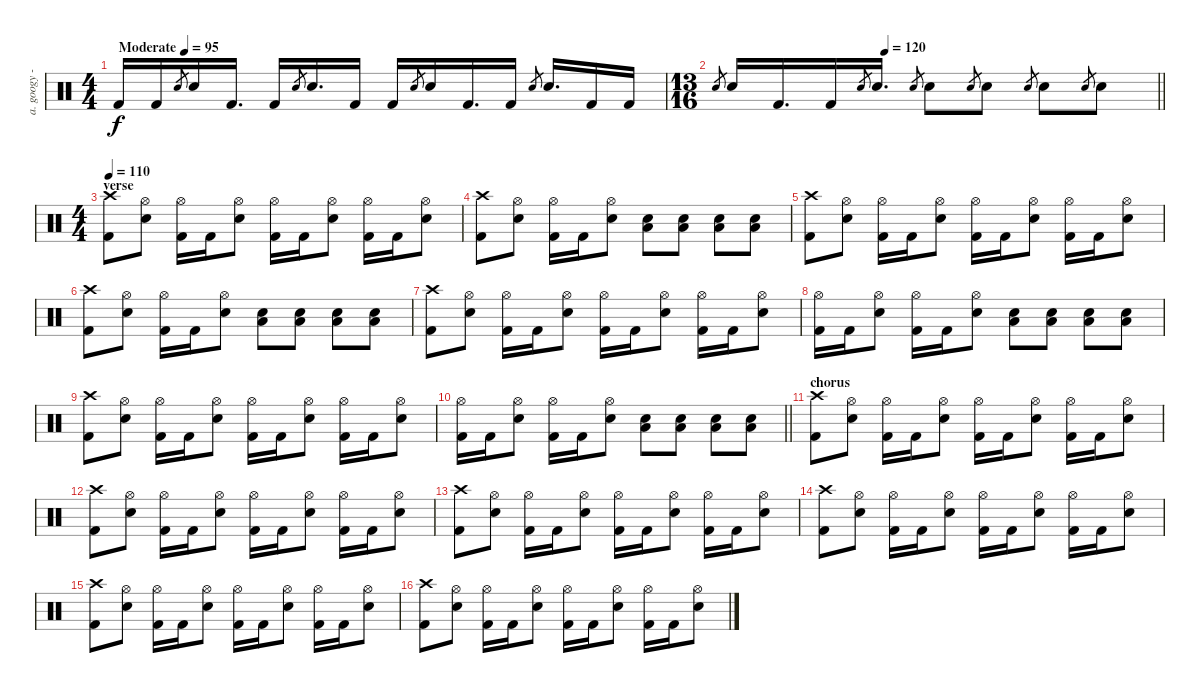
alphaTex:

\track ("a. googy - drums" "a. googy -") {instrument percussion}
\staff {score}
\articulation defaults
\ts (4 4)
\tempo (95 "Moderate")
\clef neutral
\ks c "Kick (hit) 2".16{dy f} "Kick (hit) 2".16 "Snare (hit) 2".8{gr} "Snare (hit) 2".16 "Kick (hit) 2".16{d} "Kick (hit) 2".16 "Snare (hit) 2".8{gr} "Snare (hit) 2".16{d} "Kick (hit) 2".16 "Kick (hit) 2".16 "Snare (hit) 2".8{gr} "Snare (hit) 2".16 "Kick (hit) 2".16{d} "Kick (hit) 2".16 "Snare (hit) 2".8{gr} "Snare (hit) 2".16{d} "Kick (hit) 2".16 "Kick (hit) 2".16
|
\ts (13 16)
\tempo (120 0.38461538461538464)
\barLineRight lightlight "Snare (hit) 2".8{gr} "Snare (hit) 2".16 "Kick (hit) 2".16{d} "Kick (hit) 2".16 "Snare (hit) 2".8{gr} "Snare (hit) 2".16{d} "Snare (hit) 2".8{gr} "Snare (hit) 2".8 "Snare (hit) 2".8{gr} "Snare (hit) 2".8 "Snare (hit) 2".8{gr} "Snare (hit) 2".8 "Snare (hit) 2".8{gr} "Snare (hit) 2".8
|
\ts (4 4)
\section ("" "verse")
\tempo 110
("Crash high (hit)" "Kick (hit) 2").8 ("Hi-Hat (open)" "Snare (hit) 2").8 ("Hi-Hat (open)" "Kick (hit) 2").16 "Kick (hit) 2".16 ("Hi-Hat (open)" "Snare (hit) 2").8 ("Hi-Hat (open)" "Kick (hit) 2").16 "Kick (hit) 2".16 ("Hi-Hat (open)" "Snare (hit) 2").8 ("Hi-Hat (open)" "Kick (hit) 2").16 "Kick (hit) 2".16 ("Hi-Hat (open)" "Snare (hit) 2").8 |
("Crash high (hit)" "Kick (hit) 2").8 ("Hi-Hat (open)" "Snare (hit) 2").8 ("Hi-Hat (open)" "Kick (hit) 2").16 "Kick (hit) 2".16 ("Hi-Hat (open)" "Snare (hit) 2").8 ("Snare (hit) 2" "Low Floor Tom (hit)").8 ("Snare (hit) 2" "Low Floor Tom (hit)").8 ("Snare (hit) 2" "Low Floor Tom (hit)").8 ("Snare (hit) 2" "Low Floor Tom (hit)").8 |
("Crash high (hit)" "Kick (hit) 2").8 ("Hi-Hat (open)" "Snare (hit) 2").8 ("Hi-Hat (open)" "Kick (hit) 2").16 "Kick (hit) 2".16 ("Hi-Hat (open)" "Snare (hit) 2").8 ("Hi-Hat (open)" "Kick (hit) 2").16 "Kick (hit) 2".16 ("Hi-Hat (open)" "Snare (hit) 2").8 ("Hi-Hat (open)" "Kick (hit) 2").16 "Kick (hit) 2".16 ("Hi-Hat (open)" "Snare (hit) 2").8 |
("Crash high (hit)" "Kick (hit) 2").8 ("Hi-Hat (open)" "Snare (hit) 2").8 ("Hi-Hat (open)" "Kick (hit) 2").16 "Kick (hit) 2".16 ("Hi-Hat (open)" "Snare (hit) 2").8 ("Snare (hit) 2" "Low Floor Tom (hit)").8 ("Snare (hit) 2" "Low Floor Tom (hit)").8 ("Snare (hit) 2" "Low Floor Tom (hit)").8 ("Snare (hit) 2" "Low Floor Tom (hit)").8 |
("Crash high (hit)" "Kick (hit) 2").8 ("Hi-Hat (open)" "Snare (hit) 2").8 ("Hi-Hat (open)" "Kick (hit) 2").16 "Kick (hit) 2".16 ("Hi-Hat (open)" "Snare (hit) 2").8 ("Hi-Hat (open)" "Kick (hit) 2").16 "Kick (hit) 2".16 ("Hi-Hat (open)" "Snare (hit) 2").8 ("Hi-Hat (open)" "Kick (hit) 2").16 "Kick (hit) 2".16 ("Hi-Hat (open)" "Snare (hit) 2").8 |
("Hi-Hat (open)" "Kick (hit) 2").16 "Kick (hit) 2".16 ("Hi-Hat (open)" "Snare (hit) 2").8 ("Hi-Hat (open)" "Kick (hit) 2").16 "Kick (hit) 2".16 ("Hi-Hat (open)" "Snare (hit) 2").8 ("Snare (hit) 2" "Low Floor Tom (hit)").8 ("Snare (hit) 2" "Low Floor Tom (hit)").8 ("Snare (hit) 2" "Low Floor Tom (hit)").8 ("Snare (hit) 2" "Low Floor Tom (hit)").8 |
("Crash high (hit)" "Kick (hit) 2").8 ("Hi-Hat (open)" "Snare (hit) 2").8 ("Hi-Hat (open)" "Kick (hit) 2").16 "Kick (hit) 2".16 ("Hi-Hat (open)" "Snare (hit) 2").8 ("Hi-Hat (open)" "Kick (hit) 2").16 "Kick (hit) 2".16 ("Hi-Hat (open)" "Snare (hit) 2").8 ("Hi-Hat (open)" "Kick (hit) 2").16 "Kick (hit) 2".16 ("Hi-Hat (open)" "Snare (hit) 2").8 |
\barLineRight lightlight
("Hi-Hat (open)" "Kick (hit) 2").16 "Kick (hit) 2".16 ("Hi-Hat (open)" "Snare (hit) 2").8 ("Hi-Hat (open)" "Kick (hit) 2").16 "Kick (hit) 2".16 ("Hi-Hat (open)" "Snare (hit) 2").8 ("Snare (hit) 2" "Low Floor Tom (hit)").8 ("Snare (hit) 2" "Low Floor Tom (hit)").8 ("Snare (hit) 2" "Low Floor Tom (hit)").8 ("Snare (hit) 2" "Low Floor Tom (hit)").8 |
\section ("" "chorus")
("Crash high (hit)" "Kick (hit) 2").8 ("Hi-Hat (open)" "Snare (hit) 2").8 ("Hi-Hat (open)" "Kick (hit) 2").16 "Kick (hit) 2".16 ("Hi-Hat (open)" "Snare (hit) 2").8 ("Hi-Hat (open)" "Kick (hit) 2").16 "Kick (hit) 2".16 ("Hi-Hat (open)" "Snare (hit) 2").8 ("Hi-Hat (open)" "Kick (hit) 2").16 "Kick (hit) 2".16 ("Hi-Hat (open)" "Snare (hit) 2").8 |
("Crash high (hit)" "Kick (hit) 2").8 ("Hi-Hat (open)" "Snare (hit) 2").8 ("Hi-Hat (open)" "Kick (hit) 2").16 "Kick (hit) 2".16 ("Hi-Hat (open)" "Snare (hit) 2").8 ("Hi-Hat (open)" "Kick (hit) 2").16 "Kick (hit) 2".16 ("Hi-Hat (open)" "Snare (hit) 2").8 ("Hi-Hat (open)" "Kick (hit) 2").16 "Kick (hit) 2".16 ("Hi-Hat (open)" "Snare (hit) 2").8 |
("Crash high (hit)" "Kick (hit) 2").8 ("Hi-Hat (open)" "Snare (hit) 2").8 ("Hi-Hat (open)" "Kick (hit) 2").16 "Kick (hit) 2".16 ("Hi-Hat (open)" "Snare (hit) 2").8 ("Hi-Hat (open)" "Kick (hit) 2").16 "Kick (hit) 2".16 ("Hi-Hat (open)" "Snare (hit) 2").8 ("Hi-Hat (open)" "Kick (hit) 2").16 "Kick (hit) 2".16 ("Hi-Hat (open)" "Snare (hit) 2").8 |
("Crash high (hit)" "Kick (hit) 2").8 ("Hi-Hat (open)" "Snare (hit) 2").8 ("Hi-Hat (open)" "Kick (hit) 2").16 "Kick (hit) 2".16 ("Hi-Hat (open)" "Snare (hit) 2").8 ("Hi-Hat (open)" "Kick (hit) 2").16 "Kick (hit) 2".16 ("Hi-Hat (open)" "Snare (hit) 2").8 ("Hi-Hat (open)" "Kick (hit) 2").16 "Kick (hit) 2".16 ("Hi-Hat (open)" "Snare (hit) 2").8 |
("Crash high (hit)" "Kick (hit) 2").8 ("Hi-Hat (open)" "Snare (hit) 2").8 ("Hi-Hat (open)" "Kick (hit) 2").16 "Kick (hit) 2".16 ("Hi-Hat (open)" "Snare (hit) 2").8 ("Hi-Hat (open)" "Kick (hit) 2").16 "Kick (hit) 2".16 ("Hi-Hat (open)" "Snare (hit) 2").8 ("Hi-Hat (open)" "Kick (hit) 2").16 "Kick (hit) 2".16 ("Hi-Hat (open)" "Snare (hit) 2").8 |
("Crash high (hit)" "Kick (hit) 2").8 ("Hi-Hat (open)" "Snare (hit) 2").8 ("Hi-Hat (open)" "Kick (hit) 2").16 "Kick (hit) 2".16 ("Hi-Hat (open)" "Snare (hit) 2").8 ("Hi-Hat (open)" "Kick (hit) 2").16 "Kick (hit) 2".16 ("Hi-Hat (open)" "Snare (hit) 2").8 ("Hi-Hat (open)" "Kick (hit) 2").16 "Kick (hit) 2".16 ("Hi-Hat (open)" "Snare (hit) 2").8
